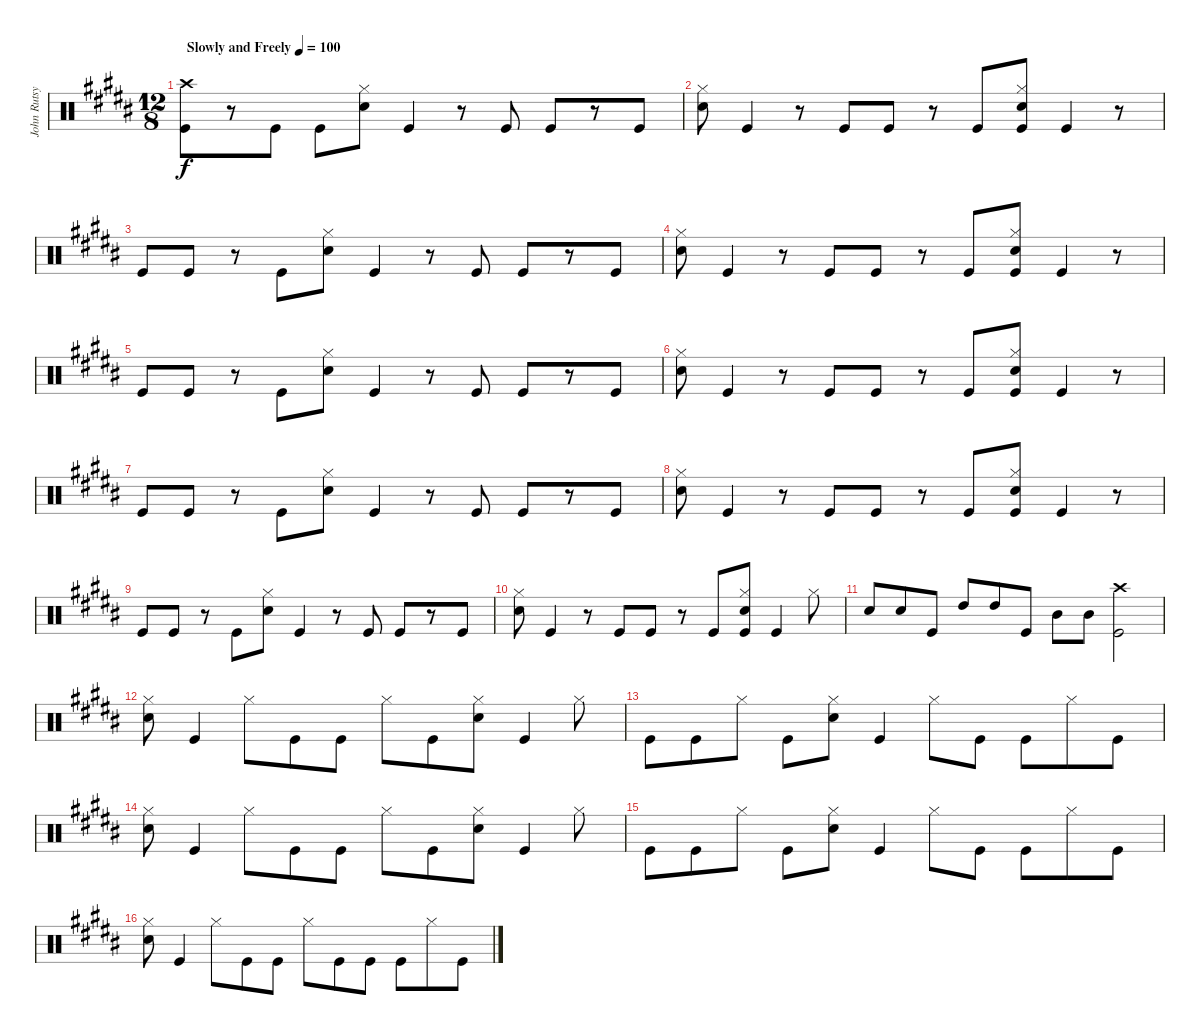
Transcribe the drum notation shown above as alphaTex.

\track ("John Rutsy Drums" "John Rutsy") {instrument percussion}
\staff {score}
\articulation defaults
\ts (12 8)
\tempo (100 "Slowly and Freely")
\clef neutral
\ks b
("Crash high (hit)" "Kick (hit)").8{dy f} r.8 "Kick (hit)".8 "Kick (hit)".8 ("Hi-Hat (closed)" "Snare (hit) 2").8 "Kick (hit)".4 r.8 "Kick (hit)".8 "Kick (hit)".8 r.8 "Kick (hit)".8 |
("Hi-Hat (closed)" "Snare (hit) 2").8 "Kick (hit)".4 r.8 "Kick (hit)".8 "Kick (hit)".8 r.8 "Kick (hit)".8 ("Hi-Hat (closed)" "Snare (hit) 2" "Kick (hit)").8 "Kick (hit)".4 r.8 |
"Kick (hit)".8 "Kick (hit)".8 r.8 "Kick (hit)".8 ("Hi-Hat (closed)" "Snare (hit) 2").8 "Kick (hit)".4 r.8 "Kick (hit)".8 "Kick (hit)".8 r.8 "Kick (hit)".8 |
("Hi-Hat (closed)" "Snare (hit) 2").8 "Kick (hit)".4 r.8 "Kick (hit)".8 "Kick (hit)".8 r.8 "Kick (hit)".8 ("Hi-Hat (closed)" "Snare (hit) 2" "Kick (hit)").8 "Kick (hit)".4 r.8 |
"Kick (hit)".8 "Kick (hit)".8 r.8 "Kick (hit)".8 ("Hi-Hat (closed)" "Snare (hit) 2").8 "Kick (hit)".4 r.8 "Kick (hit)".8 "Kick (hit)".8 r.8 "Kick (hit)".8 |
("Hi-Hat (closed)" "Snare (hit) 2").8 "Kick (hit)".4 r.8 "Kick (hit)".8 "Kick (hit)".8 r.8 "Kick (hit)".8 ("Hi-Hat (closed)" "Snare (hit) 2" "Kick (hit)").8 "Kick (hit)".4 r.8 |
"Kick (hit)".8 "Kick (hit)".8 r.8 "Kick (hit)".8 ("Hi-Hat (closed)" "Snare (hit) 2").8 "Kick (hit)".4 r.8 "Kick (hit)".8 "Kick (hit)".8 r.8 "Kick (hit)".8 |
("Hi-Hat (closed)" "Snare (hit) 2").8 "Kick (hit)".4 r.8 "Kick (hit)".8 "Kick (hit)".8 r.8 "Kick (hit)".8 ("Hi-Hat (closed)" "Snare (hit) 2" "Kick (hit)").8 "Kick (hit)".4 r.8 |
"Kick (hit)".8 "Kick (hit)".8 r.8 "Kick (hit)".8 ("Hi-Hat (closed)" "Snare (hit) 2").8 "Kick (hit)".4 r.8 "Kick (hit)".8 "Kick (hit)".8 r.8 "Kick (hit)".8 |
("Hi-Hat (closed)" "Snare (hit) 2").8 "Kick (hit)".4 r.8 "Kick (hit)".8 "Kick (hit)".8 r.8 "Kick (hit)".8 ("Hi-Hat (closed)" "Snare (hit) 2" "Kick (hit)").8 "Kick (hit)".4 "Hi-Hat (closed)".8 |
"Snare (hit) 2".8 "Snare (hit) 2".8 "Kick (hit)".8 "High Tom (hit)".8 "High Tom (hit)".8 "Kick (hit)".8 "Mid Tom (hit)".8 "Mid Tom (hit)".8 ("Crash high (hit)" "Kick (hit)").2 |
("Hi-Hat (closed)" "Snare (hit) 2").8 "Kick (hit)".4 "Hi-Hat (closed)".8 "Kick (hit)".8 "Kick (hit)".8 "Hi-Hat (closed)".8 "Kick (hit)".8 ("Hi-Hat (closed)" "Snare (hit) 2").8 "Kick (hit)".4 "Hi-Hat (closed)".8 |
"Kick (hit)".8 "Kick (hit)".8 "Hi-Hat (closed)".8 "Kick (hit)".8 ("Hi-Hat (closed)" "Snare (hit) 2").8 "Kick (hit)".4 "Hi-Hat (closed)".8 "Kick (hit)".8 "Kick (hit)".8 "Hi-Hat (closed)".8 "Kick (hit)".8 |
("Hi-Hat (closed)" "Snare (hit) 2").8 "Kick (hit)".4 "Hi-Hat (closed)".8 "Kick (hit)".8 "Kick (hit)".8 "Hi-Hat (closed)".8 "Kick (hit)".8 ("Hi-Hat (closed)" "Snare (hit) 2").8 "Kick (hit)".4 "Hi-Hat (closed)".8 |
"Kick (hit)".8 "Kick (hit)".8 "Hi-Hat (closed)".8 "Kick (hit)".8 ("Hi-Hat (closed)" "Snare (hit) 2").8 "Kick (hit)".4 "Hi-Hat (closed)".8 "Kick (hit)".8 "Kick (hit)".8 "Hi-Hat (closed)".8 "Kick (hit)".8 |
("Hi-Hat (closed)" "Snare (hit) 2").8 "Kick (hit)".4 "Hi-Hat (closed)".8 "Kick (hit)".8 "Kick (hit)".8 "Hi-Hat (closed)".8 "Kick (hit)".8 "Kick (hit)".8 "Kick (hit)".8 "Hi-Hat (closed)".8 "Kick (hit)".8
